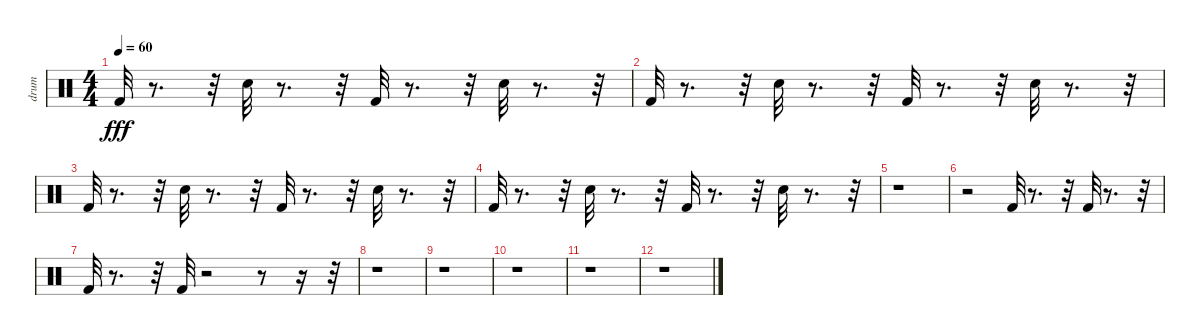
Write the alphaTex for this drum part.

\track ("drum    " "drum    ") {instrument percussion}
\staff {score}
\articulation defaults
\ts (4 4)
\tempo 60
\clef neutral
\ks c "Kick (hit) 2".32{dy fff}
r.8{d} r.32 "Electric Snare (hit)".32 r.8{d} r.32 "Kick (hit) 2".32 r.8{d} r.32 "Electric Snare (hit)".32 r.8{d} r.32 |
"Kick (hit) 2".32 r.8{d} r.32 "Electric Snare (hit)".32 r.8{d} r.32 "Kick (hit) 2".32 r.8{d} r.32 "Electric Snare (hit)".32 r.8{d} r.32 |
"Kick (hit) 2".32 r.8{d} r.32 "Electric Snare (hit)".32 r.8{d} r.32 "Kick (hit) 2".32 r.8{d} r.32 "Electric Snare (hit)".32 r.8{d} r.32 |
"Kick (hit) 2".32 r.8{d} r.32 "Electric Snare (hit)".32 r.8{d} r.32 "Kick (hit) 2".32 r.8{d} r.32 "Electric Snare (hit)".32 r.8{d} r.32 |
r.1 |
r.2 "Kick (hit) 2".32 r.8{d} r.32 "Kick (hit) 2".32 r.8{d} r.32 |
"Kick (hit) 2".32 r.8{d} r.32 "Kick (hit) 2".32 r.2 r.8 r.16 r.32 |
r.1 |
r.1 |
r.1 |
r.1 |
r.1
